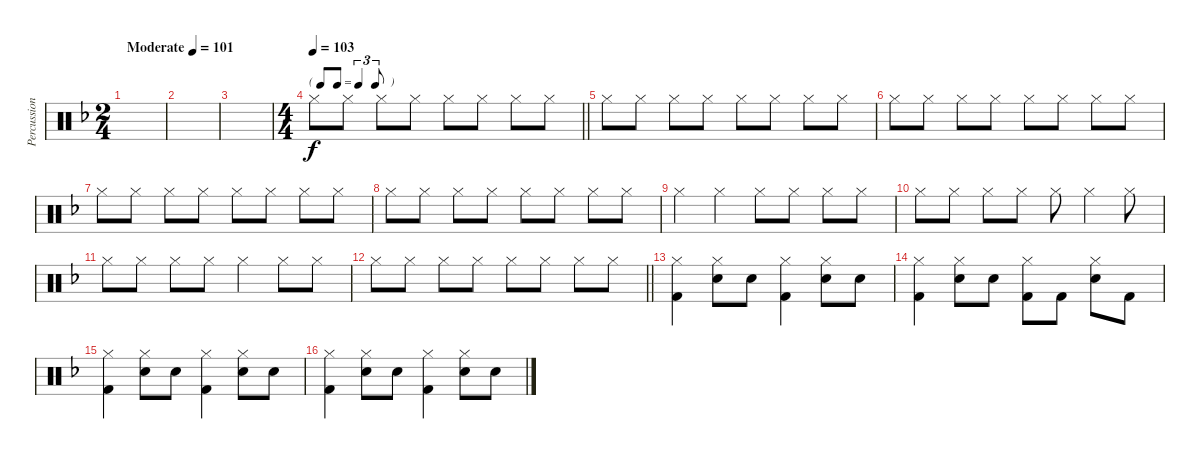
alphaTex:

\track ("Percussion" "Percussion") {instrument percussion}
\staff {score}
\articulation defaults
\ts (2 4)
\tempo (101 "Moderate")
\tempo 93
\tempo (101 "Moderate")
\clef neutral
\ks f
|
|
|
\ts (4 4)
\tf triplet8th
\tempo 103
\barLineRight lightlight "Hi-Hat (closed)".8 "Hi-Hat (closed)".8 "Hi-Hat (closed)".8 "Hi-Hat (closed)".8 "Hi-Hat (closed)".8 "Hi-Hat (closed)".8 "Hi-Hat (closed)".8 "Hi-Hat (closed)".8
|
"Hi-Hat (closed)".8 "Hi-Hat (closed)".8 "Hi-Hat (closed)".8 "Hi-Hat (closed)".8 "Hi-Hat (closed)".8 "Hi-Hat (closed)".8 "Hi-Hat (closed)".8 "Hi-Hat (closed)".8 |
"Hi-Hat (closed)".8 "Hi-Hat (closed)".8 "Hi-Hat (closed)".8 "Hi-Hat (closed)".8 "Hi-Hat (closed)".8 "Hi-Hat (closed)".8 "Hi-Hat (closed)".8 "Hi-Hat (closed)".8 |
"Hi-Hat (closed)".8 "Hi-Hat (closed)".8 "Hi-Hat (closed)".8 "Hi-Hat (closed)".8 "Hi-Hat (closed)".8 "Hi-Hat (closed)".8 "Hi-Hat (closed)".8 "Hi-Hat (closed)".8 |
"Hi-Hat (closed)".8 "Hi-Hat (closed)".8 "Hi-Hat (closed)".8 "Hi-Hat (closed)".8 "Hi-Hat (closed)".8 "Hi-Hat (closed)".8 "Hi-Hat (closed)".8 "Hi-Hat (closed)".8 |
"Hi-Hat (closed)".4 "Hi-Hat (closed)".4 "Hi-Hat (closed)".8 "Hi-Hat (closed)".8 "Hi-Hat (closed)".8 "Hi-Hat (closed)".8 |
"Hi-Hat (closed)".8 "Hi-Hat (closed)".8 "Hi-Hat (closed)".8 "Hi-Hat (closed)".8 "Hi-Hat (closed)".8 "Hi-Hat (closed)".4 "Hi-Hat (closed)".8 |
"Hi-Hat (closed)".8 "Hi-Hat (closed)".8 "Hi-Hat (closed)".8 "Hi-Hat (closed)".8 "Hi-Hat (closed)".4 "Hi-Hat (closed)".8 "Hi-Hat (closed)".8 |
\barLineRight lightlight "Hi-Hat (closed)".8 "Hi-Hat (closed)".8 "Hi-Hat (closed)".8 "Hi-Hat (closed)".8 "Hi-Hat (closed)".8 "Hi-Hat (closed)".8 "Hi-Hat (closed)".8 "Hi-Hat (closed)".8
|
("Hi-Hat (closed)" "Kick (hit) 2").4 ("Hi-Hat (closed)" "Snare (hit) 2").8 "Snare (hit) 2".8 ("Hi-Hat (closed)" "Kick (hit) 2").4 ("Hi-Hat (closed)" "Snare (hit) 2").8 "Snare (hit) 2".8 |
("Hi-Hat (closed)" "Kick (hit) 2").4 ("Hi-Hat (closed)" "Snare (hit) 2").8 "Snare (hit) 2".8 ("Hi-Hat (closed)" "Kick (hit) 2").8 "Kick (hit) 2".8 ("Hi-Hat (closed)" "Snare (hit) 2").8 "Kick (hit) 2".8 |
("Hi-Hat (closed)" "Kick (hit) 2").4 ("Hi-Hat (closed)" "Snare (hit) 2").8 "Snare (hit) 2".8 ("Hi-Hat (closed)" "Kick (hit) 2").4 ("Hi-Hat (closed)" "Snare (hit) 2").8 "Snare (hit) 2".8 |
("Hi-Hat (closed)" "Kick (hit) 2").4 ("Hi-Hat (closed)" "Snare (hit) 2").8 "Snare (hit) 2".8 ("Hi-Hat (closed)" "Kick (hit) 2").4 ("Hi-Hat (closed)" "Snare (hit) 2").8 "Snare (hit) 2".8
